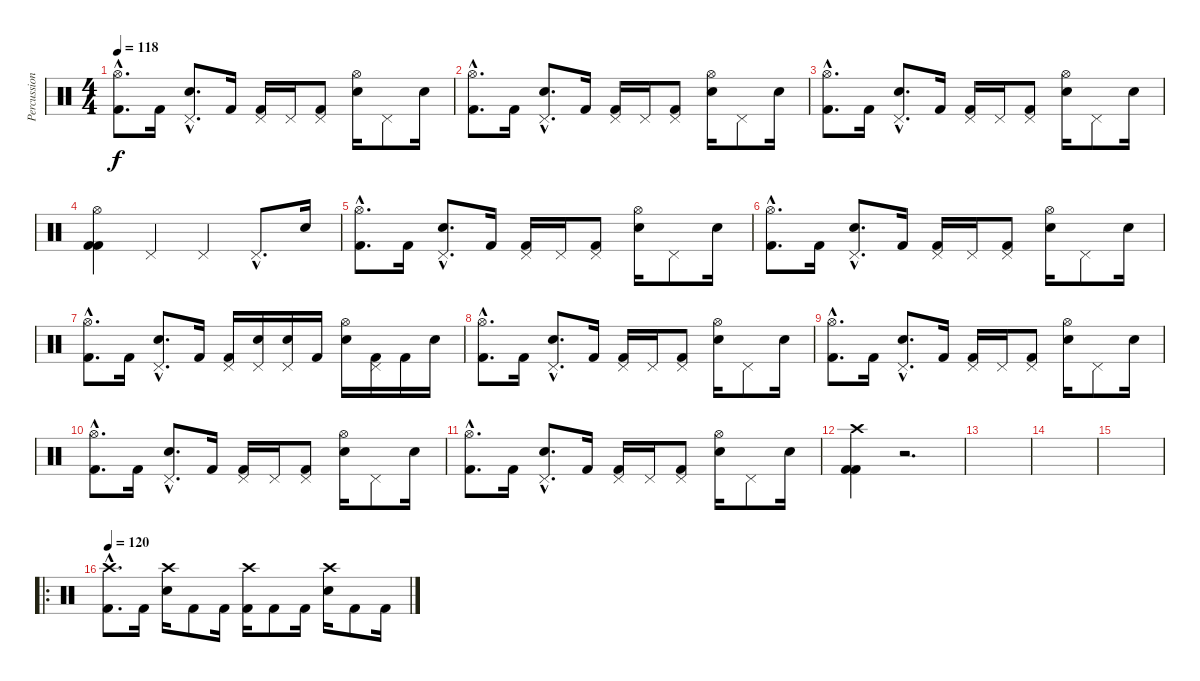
\track ("Percussions" "Percussion") {instrument percussion}
\staff {score}
\articulation defaults
\ts (4 4)
\tempo 118
\clef neutral
\ks c
("Hi-Hat (open)"{hac} "Kick (hit) 2"{hac}).8{d dy f} "Kick (hit) 2".16 ("Pedal Hi-Hat (hit)"{hac} "Electric Snare (hit)"{hac}).8{d} "Kick (hit) 2".16 ("Pedal Hi-Hat (hit)" "Kick (hit) 2").16 "Pedal Hi-Hat (hit)".16 ("Pedal Hi-Hat (hit)" "Kick (hit) 2").8 ("Hi-Hat (open)" "Electric Snare (hit)").16 "Pedal Hi-Hat (hit)".8 "Electric Snare (hit)".16 |
("Hi-Hat (open)"{hac} "Kick (hit) 2"{hac}).8{d} "Kick (hit) 2".16 ("Pedal Hi-Hat (hit)"{hac} "Electric Snare (hit)"{hac}).8{d} "Kick (hit) 2".16 ("Pedal Hi-Hat (hit)" "Kick (hit) 2").16 "Pedal Hi-Hat (hit)".16 ("Pedal Hi-Hat (hit)" "Kick (hit) 2").8 ("Hi-Hat (open)" "Electric Snare (hit)").16 "Pedal Hi-Hat (hit)".8 "Electric Snare (hit)".16 |
("Hi-Hat (open)"{hac} "Kick (hit) 2"{hac}).8{d} "Kick (hit) 2".16 ("Pedal Hi-Hat (hit)"{hac} "Electric Snare (hit)"{hac}).8{d} "Kick (hit) 2".16 ("Pedal Hi-Hat (hit)" "Kick (hit) 2").16 "Pedal Hi-Hat (hit)".16 ("Pedal Hi-Hat (hit)" "Kick (hit) 2").8 ("Hi-Hat (open)" "Electric Snare (hit)").16 "Pedal Hi-Hat (hit)".8 "Electric Snare (hit)".16 |
("Hi-Hat (open)" "Kick (hit) 2" "Kick (hit) 2").4 "Pedal Hi-Hat (hit)".4 "Pedal Hi-Hat (hit)".4 "Pedal Hi-Hat (hit)"{hac}.8{d} "Electric Snare (hit)".16 |
("Hi-Hat (open)"{hac} "Kick (hit) 2"{hac}).8{d} "Kick (hit) 2".16 ("Pedal Hi-Hat (hit)"{hac} "Electric Snare (hit)"{hac}).8{d} "Kick (hit) 2".16 ("Pedal Hi-Hat (hit)" "Kick (hit) 2").16 "Pedal Hi-Hat (hit)".16 ("Pedal Hi-Hat (hit)" "Kick (hit) 2").8 ("Hi-Hat (open)" "Electric Snare (hit)").16 "Pedal Hi-Hat (hit)".8 "Electric Snare (hit)".16 |
("Hi-Hat (open)"{hac} "Kick (hit) 2"{hac}).8{d} "Kick (hit) 2".16 ("Pedal Hi-Hat (hit)"{hac} "Electric Snare (hit)"{hac}).8{d} "Kick (hit) 2".16 ("Pedal Hi-Hat (hit)" "Kick (hit) 2").16 "Pedal Hi-Hat (hit)".16 ("Pedal Hi-Hat (hit)" "Kick (hit) 2").8 ("Hi-Hat (open)" "Electric Snare (hit)").16 "Pedal Hi-Hat (hit)".8 "Electric Snare (hit)".16 |
("Hi-Hat (open)"{hac} "Kick (hit) 2"{hac}).8{d} "Kick (hit) 2".16 ("Pedal Hi-Hat (hit)"{hac} "Electric Snare (hit)"{hac}).8{d} "Kick (hit) 2".16 ("Pedal Hi-Hat (hit)" "Kick (hit) 2").16 ("Pedal Hi-Hat (hit)" "Electric Snare (hit)").16 ("Pedal Hi-Hat (hit)" "Electric Snare (hit)").16 "Kick (hit) 2".16 ("Hi-Hat (open)" "Electric Snare (hit)").16 ("Pedal Hi-Hat (hit)" "Kick (hit) 2").16 "Kick (hit) 2".16 "Electric Snare (hit)".16 |
("Hi-Hat (open)"{hac} "Kick (hit) 2"{hac}).8{d} "Kick (hit) 2".16 ("Pedal Hi-Hat (hit)"{hac} "Electric Snare (hit)"{hac}).8{d} "Kick (hit) 2".16 ("Pedal Hi-Hat (hit)" "Kick (hit) 2").16 "Pedal Hi-Hat (hit)".16 ("Pedal Hi-Hat (hit)" "Kick (hit) 2").8 ("Hi-Hat (open)" "Electric Snare (hit)").16 "Pedal Hi-Hat (hit)".8 "Electric Snare (hit)".16 |
("Hi-Hat (open)"{hac} "Kick (hit) 2"{hac}).8{d} "Kick (hit) 2".16 ("Pedal Hi-Hat (hit)"{hac} "Electric Snare (hit)"{hac}).8{d} "Kick (hit) 2".16 ("Pedal Hi-Hat (hit)" "Kick (hit) 2").16 "Pedal Hi-Hat (hit)".16 ("Pedal Hi-Hat (hit)" "Kick (hit) 2").8 ("Hi-Hat (open)" "Electric Snare (hit)").16 "Pedal Hi-Hat (hit)".8 "Electric Snare (hit)".16 |
("Hi-Hat (open)"{hac} "Kick (hit) 2"{hac}).8{d} "Kick (hit) 2".16 ("Pedal Hi-Hat (hit)"{hac} "Electric Snare (hit)"{hac}).8{d} "Kick (hit) 2".16 ("Pedal Hi-Hat (hit)" "Kick (hit) 2").16 "Pedal Hi-Hat (hit)".16 ("Pedal Hi-Hat (hit)" "Kick (hit) 2").8 ("Hi-Hat (open)" "Electric Snare (hit)").16 "Pedal Hi-Hat (hit)".8 "Electric Snare (hit)".16 |
("Hi-Hat (open)"{hac} "Kick (hit) 2"{hac}).8{d} "Kick (hit) 2".16 ("Pedal Hi-Hat (hit)"{hac} "Electric Snare (hit)"{hac}).8{d} "Kick (hit) 2".16 ("Pedal Hi-Hat (hit)" "Kick (hit) 2").16 "Pedal Hi-Hat (hit)".16 ("Pedal Hi-Hat (hit)" "Kick (hit) 2").8 ("Hi-Hat (open)" "Electric Snare (hit)").16 "Pedal Hi-Hat (hit)".8 "Electric Snare (hit)".16 |
("Crash high (hit)" "Kick (hit) 2" "Kick (hit) 2").4 r.2{d} |
|
|
|
\ro
\tempo 120
("Crash high (hit)"{hac} "Kick (hit) 2"{hac}).8{d} "Kick (hit) 2".16 ("Crash high (hit)" "Electric Snare (hit)").16 "Kick (hit) 2".8 "Kick (hit) 2".16 ("Crash high (hit)" "Kick (hit) 2").16 "Kick (hit) 2".8 "Kick (hit) 2".16 ("Crash high (hit)" "Electric Snare (hit)").16 "Kick (hit) 2".8 "Kick (hit) 2".16
